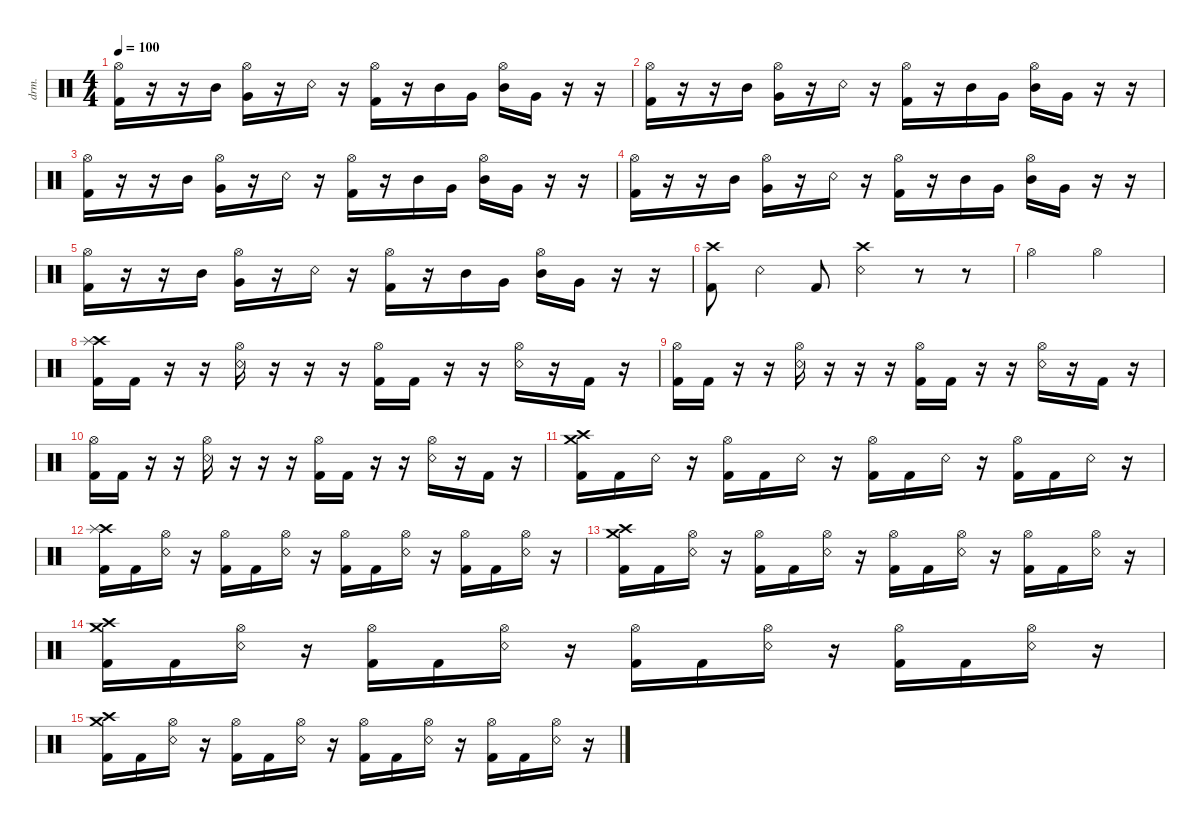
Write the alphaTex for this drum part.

\defaultSystemsLayout 4
\hideDynamics
\bracketExtendMode nobrackets
\otherSystemsTrackNameOrientation horizontal
\track ("Drumkit" "drm.") {instrument percussion}
\staff {score}
\articulation defaults
\ts (4 4)
\tempo 100
\clef neutral
\ks c
("Hi-Hat (open)" "Kick (hit) 2").16{dy mf beam Down} r.16{beam Down} r.16{beam Down} "Mid Tom (hit)".16{beam Down} ("Very Low Tom (hit)" "Hi-Hat (open)").16{beam Down} r.16{beam Down} "Snare (rim shot)".16{beam Down} r.16{beam Down} ("Hi-Hat (open)" "Kick (hit) 2").16{beam Down} r.16{beam Down} "Mid Tom (hit)".16{beam Down} "Very Low Tom (hit)".16{beam Down} ("Mid Tom (hit)" "Hi-Hat (open)").16{beam Down} "Very Low Tom (hit)".16{beam Down} r.16{beam Down} r.16{beam Down} |
("Hi-Hat (open)" "Kick (hit) 2").16{beam Down} r.16{beam Down} r.16{beam Down} "Mid Tom (hit)".16{beam Down} ("Very Low Tom (hit)" "Hi-Hat (open)").16{beam Down} r.16{beam Down} "Snare (rim shot)".16{beam Down} r.16{beam Down} ("Hi-Hat (open)" "Kick (hit) 2").16{beam Down} r.16{beam Down} "Mid Tom (hit)".16{beam Down} "Very Low Tom (hit)".16{beam Down} ("Mid Tom (hit)" "Hi-Hat (open)").16{beam Down} "Very Low Tom (hit)".16{beam Down} r.16{beam Down} r.16{beam Down} |
("Hi-Hat (open)" "Kick (hit) 2").16{beam Down} r.16{beam Down} r.16{beam Down} "Mid Tom (hit)".16{beam Down} ("Very Low Tom (hit)" "Hi-Hat (open)").16{beam Down} r.16{beam Down} "Snare (rim shot)".16{beam Down} r.16{beam Down} ("Hi-Hat (open)" "Kick (hit) 2").16{beam Down} r.16{beam Down} "Mid Tom (hit)".16{beam Down} "Very Low Tom (hit)".16{beam Down} ("Mid Tom (hit)" "Hi-Hat (open)").16{beam Down} "Very Low Tom (hit)".16{beam Down} r.16{beam Down} r.16{beam Down} |
("Hi-Hat (open)" "Kick (hit) 2").16{beam Down} r.16{beam Down} r.16{beam Down} "Mid Tom (hit)".16{beam Down} ("Very Low Tom (hit)" "Hi-Hat (open)").16{beam Down} r.16{beam Down} "Snare (rim shot)".16{beam Down} r.16{beam Down} ("Hi-Hat (open)" "Kick (hit) 2").16{beam Down} r.16{beam Down} "Mid Tom (hit)".16{beam Down} "Very Low Tom (hit)".16{beam Down} ("Mid Tom (hit)" "Hi-Hat (open)").16{beam Down} "Very Low Tom (hit)".16{beam Down} r.16{beam Down} r.16{beam Down} |
("Hi-Hat (open)" "Kick (hit) 2").16{beam Down} r.16{beam Down} r.16{beam Down} "Mid Tom (hit)".16{beam Down} ("Very Low Tom (hit)" "Hi-Hat (open)").16{beam Down} r.16{beam Down} "Snare (rim shot)".16{beam Down} r.16{beam Down} ("Hi-Hat (open)" "Kick (hit) 2").16{beam Down} r.16{beam Down} "Mid Tom (hit)".16{beam Down} "Very Low Tom (hit)".16{beam Down} ("Mid Tom (hit)" "Hi-Hat (open)").16{beam Down} "Very Low Tom (hit)".16{beam Down} r.16{beam Down} r.16{beam Down} |
("Kick (hit) 2" "Crash high (hit)").8{beam Down} "Snare (rim shot)".4{beam Down} "Kick (hit) 2".8{beam Up} ("Snare (rim shot)" "Crash high (hit)").4{beam Down} r.8{beam Down} r.8{beam Down} |
"Hi-Hat (open)".2{beam Down} "Hi-Hat (open)".2{beam Down} |
("Kick (hit) 2" "Crash high (hit)" "Splash (hit)").16 "Kick (hit) 2".16 r.16 r.16 ("Snare (rim shot)" "Hi-Hat (open)").16 r.16 r.16 r.16 ("Kick (hit) 2" "Hi-Hat (open)").16 "Kick (hit) 2".16 r.16 r.16 ("Snare (rim shot)" "Hi-Hat (open)").16 r.16 "Kick (hit) 2".16 r.16 |
("Kick (hit) 2" "Hi-Hat (open)").16 "Kick (hit) 2".16 r.16 r.16 ("Snare (rim shot)" "Hi-Hat (open)").16 r.16 r.16 r.16 ("Kick (hit) 2" "Hi-Hat (open)").16 "Kick (hit) 2".16 r.16 r.16 ("Snare (rim shot)" "Hi-Hat (open)").16 r.16 "Kick (hit) 2".16 r.16 |
("Kick (hit) 2" "Hi-Hat (open)").16 "Kick (hit) 2".16 r.16 r.16 ("Snare (rim shot)" "Hi-Hat (open)").16 r.16 r.16 r.16 ("Kick (hit) 2" "Hi-Hat (open)").16 "Kick (hit) 2".16 r.16 r.16 ("Snare (rim shot)" "Hi-Hat (open)").16 r.16 "Kick (hit) 2".16 r.16 |
("Kick (hit) 2" "Crash medium (hit)" "Crash high (hit)").16 "Kick (hit) 2".16 "Snare (rim shot)".16 r.16 ("Kick (hit) 2" "Hi-Hat (open)").16 "Kick (hit) 2".16 "Snare (rim shot)".16 r.16 ("Kick (hit) 2" "Hi-Hat (open)").16 "Kick (hit) 2".16 "Snare (rim shot)".16 r.16 ("Kick (hit) 2" "Hi-Hat (open)").16 "Kick (hit) 2".16 "Snare (rim shot)".16 r.16 |
("Kick (hit) 2" "Crash high (hit)" "Splash (hit)").16{beam Down} "Kick (hit) 2".16{beam Down} ("Snare (rim shot)" "Hi-Hat (open)").16{beam Down} r.16{beam Down} ("Kick (hit) 2" "Hi-Hat (open)").16{beam Down} "Kick (hit) 2".16{beam Down} ("Snare (rim shot)" "Hi-Hat (open)").16{beam Down} r.16{beam Down} ("Kick (hit) 2" "Hi-Hat (open)").16{beam Down} "Kick (hit) 2".16{beam Down} ("Snare (rim shot)" "Hi-Hat (open)").16{beam Down} r.16{beam Down} ("Kick (hit) 2" "Hi-Hat (open)").16{beam Down} "Kick (hit) 2".16{beam Down} ("Snare (rim shot)" "Hi-Hat (open)").16{beam Down} r.16{beam Down} |
("Kick (hit) 2" "Crash medium (hit)" "Crash high (hit)").16{beam Down} "Kick (hit) 2".16{beam Down} ("Snare (rim shot)" "Hi-Hat (open)").16{beam Down} r.16{beam Down} ("Kick (hit) 2" "Hi-Hat (open)").16{beam Down} "Kick (hit) 2".16{beam Down} ("Snare (rim shot)" "Hi-Hat (open)").16{beam Down} r.16{beam Down} ("Kick (hit) 2" "Hi-Hat (open)").16{beam Down} "Kick (hit) 2".16{beam Down} ("Snare (rim shot)" "Hi-Hat (open)").16{beam Down} r.16{beam Down} ("Kick (hit) 2" "Hi-Hat (open)").16{beam Down} "Kick (hit) 2".16{beam Down} ("Snare (rim shot)" "Hi-Hat (open)").16{beam Down} r.16{beam Down} |
("Kick (hit) 2" "Crash medium (hit)" "Crash high (hit)").16{beam Down} "Kick (hit) 2".16{beam Down} ("Snare (rim shot)" "Hi-Hat (open)").16{beam Down} r.16{beam Down} ("Kick (hit) 2" "Hi-Hat (open)").16{beam Down} "Kick (hit) 2".16{beam Down} ("Snare (rim shot)" "Hi-Hat (open)").16{beam Down} r.16{beam Down} ("Kick (hit) 2" "Hi-Hat (open)").16{beam Down} "Kick (hit) 2".16{beam Down} ("Snare (rim shot)" "Hi-Hat (open)").16{beam Down} r.16{beam Down} ("Kick (hit) 2" "Hi-Hat (open)").16{beam Down} "Kick (hit) 2".16{beam Down} ("Snare (rim shot)" "Hi-Hat (open)").16{beam Down} r.16{beam Down} |
("Kick (hit) 2" "Crash medium (hit)" "Crash high (hit)").16{beam Down} "Kick (hit) 2".16{beam Down} ("Snare (rim shot)" "Hi-Hat (open)").16{beam Down} r.16{beam Down} ("Kick (hit) 2" "Hi-Hat (open)").16{beam Down} "Kick (hit) 2".16{beam Down} ("Snare (rim shot)" "Hi-Hat (open)").16{beam Down} r.16{beam Down} ("Kick (hit) 2" "Hi-Hat (open)").16{beam Down} "Kick (hit) 2".16{beam Down} ("Snare (rim shot)" "Hi-Hat (open)").16{beam Down} r.16{beam Down} ("Kick (hit) 2" "Hi-Hat (open)").16{beam Down} "Kick (hit) 2".16{beam Down} ("Snare (rim shot)" "Hi-Hat (open)").16{beam Down} r.16{beam Down}
